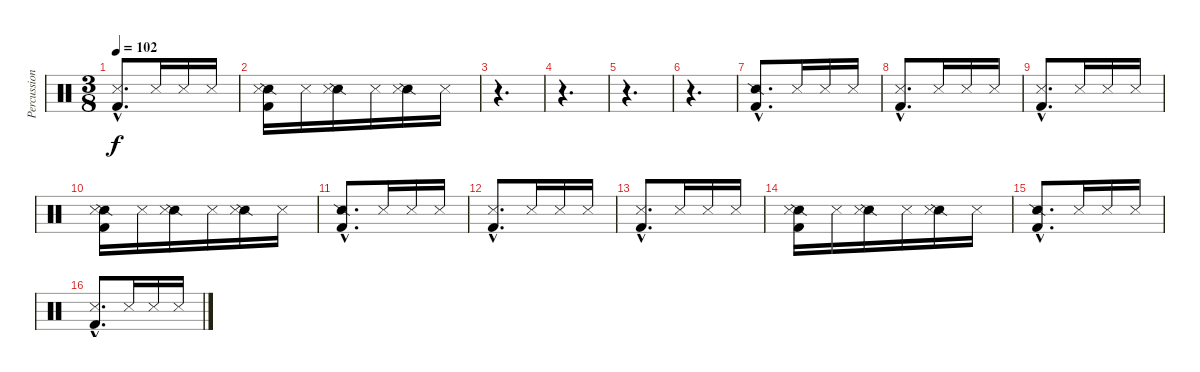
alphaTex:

\track ("Percussions" "Percussion") {instrument percussion}
\staff {score}
\articulation defaults
\ts (3 8)
\tempo 102
\clef neutral
\ks c
("Snare (side stick) 3"{hac} "Kick (hit) 2"{hac}).8{d dy f} "Snare (side stick) 3".16 "Snare (side stick) 3".16 "Snare (side stick) 3".16 |
("Snare (side stick) 2" "Snare (side stick) 3" "Kick (hit) 2").16 "Snare (side stick) 3".16 ("Snare (side stick) 2" "Snare (side stick) 3").16 "Snare (side stick) 3".16 ("Snare (side stick) 2" "Snare (side stick) 3").16 "Snare (side stick) 3".16 |
r.4{d} |
r.4{d} |
r.4{d} |
r.4{d} |
("Snare (side stick) 2"{hac} "Kick (hit) 2"{hac}).8{d} "Snare (side stick) 3".16 "Snare (side stick) 3".16 "Snare (side stick) 3".16 |
("Snare (side stick) 3"{hac} "Kick (hit) 2"{hac}).8{d} "Snare (side stick) 3".16 "Snare (side stick) 3".16 "Snare (side stick) 3".16 |
("Snare (side stick) 3"{hac} "Kick (hit) 2"{hac}).8{d} "Snare (side stick) 3".16 "Snare (side stick) 3".16 "Snare (side stick) 3".16 |
("Snare (side stick) 2" "Snare (side stick) 3" "Kick (hit) 2").16 "Snare (side stick) 3".16 ("Snare (side stick) 2" "Snare (side stick) 3").16 "Snare (side stick) 3".16 ("Snare (side stick) 2" "Snare (side stick) 3").16 "Snare (side stick) 3".16 |
("Snare (side stick) 2"{hac} "Kick (hit) 2"{hac}).8{d} "Snare (side stick) 3".16 "Snare (side stick) 3".16 "Snare (side stick) 3".16 |
("Snare (side stick) 3"{hac} "Kick (hit) 2"{hac}).8{d} "Snare (side stick) 3".16 "Snare (side stick) 3".16 "Snare (side stick) 3".16 |
("Snare (side stick) 3"{hac} "Kick (hit) 2"{hac}).8{d} "Snare (side stick) 3".16 "Snare (side stick) 3".16 "Snare (side stick) 3".16 |
("Snare (side stick) 2" "Snare (side stick) 3" "Kick (hit) 2").16 "Snare (side stick) 3".16 ("Snare (side stick) 2" "Snare (side stick) 3").16 "Snare (side stick) 3".16 ("Snare (side stick) 2" "Snare (side stick) 3").16 "Snare (side stick) 3".16 |
("Snare (side stick) 2"{hac} "Kick (hit) 2"{hac}).8{d} "Snare (side stick) 3".16 "Snare (side stick) 3".16 "Snare (side stick) 3".16 |
("Snare (side stick) 3"{hac} "Kick (hit) 2"{hac}).8{d} "Snare (side stick) 3".16 "Snare (side stick) 3".16 "Snare (side stick) 3".16
